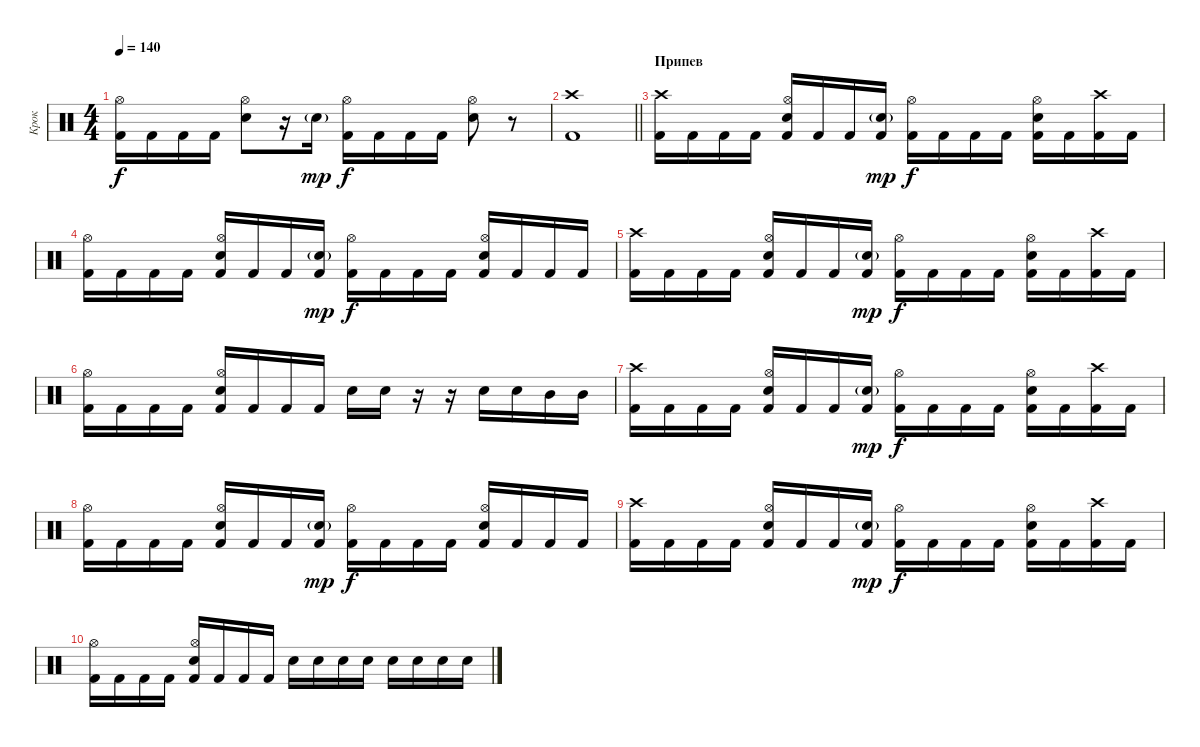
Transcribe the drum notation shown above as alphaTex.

\track ("Крок" "Крок") {instrument percussion}
\staff {score}
\articulation defaults
\ts (4 4)
\tempo 140
\clef neutral
\ks c
("Kick (hit) 2" "Hi-Hat (open)").16{dy f} "Kick (hit) 2".16 "Kick (hit) 2".16 "Kick (hit) 2".16 ("Electric Snare (hit)" "Hi-Hat (open)").8 r.16 "Electric Snare (hit)"{g}.16{dy mp} ("Kick (hit) 2" "Hi-Hat (open)").16{dy f} "Kick (hit) 2".16 "Kick (hit) 2".16 "Kick (hit) 2".16 ("Electric Snare (hit)" "Hi-Hat (open)").8 r.8 |
\barLineRight lightlight
("Kick (hit) 2" "Crash high (hit)").1 |
\section ("" "Припев")
("Kick (hit) 2" "Crash high (hit)").16 "Kick (hit) 2".16 "Kick (hit) 2".16 "Kick (hit) 2".16 ("Kick (hit) 2" "Electric Snare (hit)" "Hi-Hat (open)").16 "Kick (hit) 2".16 "Kick (hit) 2".16 ("Kick (hit) 2" "Electric Snare (hit)"{g}).16{dy mp} ("Kick (hit) 2" "Hi-Hat (open)").16{dy f} "Kick (hit) 2".16 "Kick (hit) 2".16 "Kick (hit) 2".16 ("Kick (hit) 2" "Electric Snare (hit)" "Hi-Hat (open)").16 "Kick (hit) 2".16 ("Kick (hit) 2" "Crash high (hit)").16 "Kick (hit) 2".16 |
("Kick (hit) 2" "Hi-Hat (open)").16 "Kick (hit) 2".16 "Kick (hit) 2".16 "Kick (hit) 2".16 ("Kick (hit) 2" "Electric Snare (hit)" "Hi-Hat (open)").16 "Kick (hit) 2".16 "Kick (hit) 2".16 ("Kick (hit) 2" "Electric Snare (hit)"{g}).16{dy mp} ("Kick (hit) 2" "Hi-Hat (open)").16{dy f} "Kick (hit) 2".16 "Kick (hit) 2".16 "Kick (hit) 2".16 ("Kick (hit) 2" "Electric Snare (hit)" "Hi-Hat (open)").16 "Kick (hit) 2".16 "Kick (hit) 2".16 "Kick (hit) 2".16 |
("Kick (hit) 2" "Crash high (hit)").16 "Kick (hit) 2".16 "Kick (hit) 2".16 "Kick (hit) 2".16 ("Kick (hit) 2" "Electric Snare (hit)" "Hi-Hat (open)").16 "Kick (hit) 2".16 "Kick (hit) 2".16 ("Kick (hit) 2" "Electric Snare (hit)"{g}).16{dy mp} ("Kick (hit) 2" "Hi-Hat (open)").16{dy f} "Kick (hit) 2".16 "Kick (hit) 2".16 "Kick (hit) 2".16 ("Kick (hit) 2" "Electric Snare (hit)" "Hi-Hat (open)").16 "Kick (hit) 2".16 ("Kick (hit) 2" "Crash high (hit)").16 "Kick (hit) 2".16 |
("Kick (hit) 2" "Hi-Hat (open)").16 "Kick (hit) 2".16 "Kick (hit) 2".16 "Kick (hit) 2".16 ("Kick (hit) 2" "Electric Snare (hit)" "Hi-Hat (open)").16 "Kick (hit) 2".16 "Kick (hit) 2".16 "Kick (hit) 2".16 "Electric Snare (hit)".16 "Electric Snare (hit)".16 r.16 r.16 "Electric Snare (hit)".16 "Electric Snare (hit)".16 "Mid Tom (hit)".16 "Mid Tom (hit)".16 |
("Kick (hit) 2" "Crash high (hit)").16 "Kick (hit) 2".16 "Kick (hit) 2".16 "Kick (hit) 2".16 ("Kick (hit) 2" "Electric Snare (hit)" "Hi-Hat (open)").16 "Kick (hit) 2".16 "Kick (hit) 2".16 ("Kick (hit) 2" "Electric Snare (hit)"{g}).16{dy mp} ("Kick (hit) 2" "Hi-Hat (open)").16{dy f} "Kick (hit) 2".16 "Kick (hit) 2".16 "Kick (hit) 2".16 ("Kick (hit) 2" "Electric Snare (hit)" "Hi-Hat (open)").16 "Kick (hit) 2".16 ("Kick (hit) 2" "Crash high (hit)").16 "Kick (hit) 2".16 |
("Kick (hit) 2" "Hi-Hat (open)").16 "Kick (hit) 2".16 "Kick (hit) 2".16 "Kick (hit) 2".16 ("Kick (hit) 2" "Electric Snare (hit)" "Hi-Hat (open)").16 "Kick (hit) 2".16 "Kick (hit) 2".16 ("Kick (hit) 2" "Electric Snare (hit)"{g}).16{dy mp} ("Kick (hit) 2" "Hi-Hat (open)").16{dy f} "Kick (hit) 2".16 "Kick (hit) 2".16 "Kick (hit) 2".16 ("Kick (hit) 2" "Electric Snare (hit)" "Hi-Hat (open)").16 "Kick (hit) 2".16 "Kick (hit) 2".16 "Kick (hit) 2".16 |
("Kick (hit) 2" "Crash high (hit)").16 "Kick (hit) 2".16 "Kick (hit) 2".16 "Kick (hit) 2".16 ("Kick (hit) 2" "Electric Snare (hit)" "Hi-Hat (open)").16 "Kick (hit) 2".16 "Kick (hit) 2".16 ("Kick (hit) 2" "Electric Snare (hit)"{g}).16{dy mp} ("Kick (hit) 2" "Hi-Hat (open)").16{dy f} "Kick (hit) 2".16 "Kick (hit) 2".16 "Kick (hit) 2".16 ("Kick (hit) 2" "Electric Snare (hit)" "Hi-Hat (open)").16 "Kick (hit) 2".16 ("Kick (hit) 2" "Crash high (hit)").16 "Kick (hit) 2".16 |
("Kick (hit) 2" "Hi-Hat (open)").16 "Kick (hit) 2".16 "Kick (hit) 2".16 "Kick (hit) 2".16 ("Kick (hit) 2" "Electric Snare (hit)" "Hi-Hat (open)").16 "Kick (hit) 2".16 "Kick (hit) 2".16 "Kick (hit) 2".16 "Electric Snare (hit)".16 "Electric Snare (hit)".16 "Electric Snare (hit)".16 "Electric Snare (hit)".16 "Electric Snare (hit)".16 "Electric Snare (hit)".16 "Electric Snare (hit)".16 "Electric Snare (hit)".16
